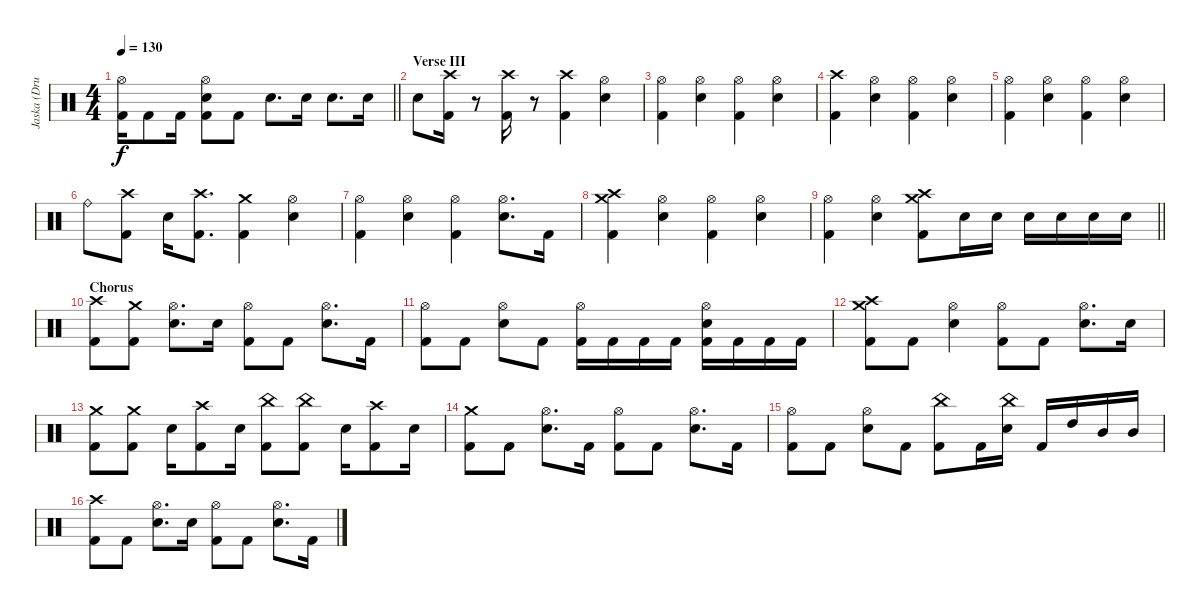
\track ("Jaska (Drums)" "Jaska (Dru") {instrument percussion}
\staff {score}
\articulation defaults
\ts (4 4)
\tempo 130
\clef neutral
\barLineRight lightlight
\ks c
("Hi-Hat (open)" "Kick (hit) 2").16{dy f} "Kick (hit) 2".8 "Kick (hit) 2".16 ("Hi-Hat (open)" "Electric Snare (hit)" "Kick (hit) 2").8 "Kick (hit) 2".8 "Electric Snare (hit)".8{d} "Electric Snare (hit)".16 "Electric Snare (hit)".8{d} "Electric Snare (hit)".16 |
\section ("" "Verse III")
"Electric Snare (hit)".8 ("Crash high (hit)" "Kick (hit) 2").16 r.8{volume 0} ("Crash high (hit)" "Kick (hit) 2").16{volume 16} r.8{volume 0} ("Crash high (hit)" "Kick (hit) 2").4{volume 16} ("Hi-Hat (open)" "Electric Snare (hit)").4 |
("Hi-Hat (open)" "Kick (hit) 2").4 ("Hi-Hat (open)" "Electric Snare (hit)").4 ("Hi-Hat (open)" "Kick (hit) 2").4 ("Hi-Hat (open)" "Electric Snare (hit)").4 |
("Crash high (hit)" "Kick (hit) 2").4 ("Hi-Hat (open)" "Electric Snare (hit)").4 ("Hi-Hat (open)" "Kick (hit) 2").4 ("Hi-Hat (open)" "Electric Snare (hit)").4 |
("Hi-Hat (open)" "Kick (hit) 2").4 ("Hi-Hat (open)" "Electric Snare (hit)").4 ("Hi-Hat (open)" "Kick (hit) 2").4 ("Hi-Hat (open)" "Electric Snare (hit)").4 |
"Ride (bell)".8 ("Crash high (hit)" "Kick (hit) 2").8 "Electric Snare (hit)".16 ("Crash high (hit)" "Kick (hit) 2").8{d} ("Crash medium (hit)" "Kick (hit) 2").4 ("Hi-Hat (open)" "Electric Snare (hit)").4 |
("Hi-Hat (open)" "Kick (hit) 2").4 ("Hi-Hat (open)" "Electric Snare (hit)").4 ("Hi-Hat (open)" "Kick (hit) 2").4 ("Hi-Hat (open)" "Electric Snare (hit)").8{d} "Kick (hit) 2".16 |
("Crash medium (hit)" "Crash high (hit)" "Kick (hit) 2").4 ("Hi-Hat (open)" "Electric Snare (hit)").4 ("Hi-Hat (open)" "Kick (hit) 2").4 ("Hi-Hat (open)" "Electric Snare (hit)").4 |
\barLineRight lightlight
("Hi-Hat (open)" "Kick (hit) 2").4 ("Hi-Hat (open)" "Electric Snare (hit)").4 ("Crash medium (hit)" "Crash high (hit)" "Kick (hit) 2").8 "Electric Snare (hit)".16 "Electric Snare (hit)".16 "Electric Snare (hit)".16 "Electric Snare (hit)".16 "Electric Snare (hit)".16 "Electric Snare (hit)".16 |
\section ("" "Chorus")
("Crash high (hit)" "Kick (hit) 2").8 ("Crash medium (hit)" "Kick (hit) 2").8 ("Hi-Hat (open)" "Electric Snare (hit)").8{d} "Electric Snare (hit)".16 ("Hi-Hat (open)" "Kick (hit) 2").8 "Kick (hit) 2".8 ("Hi-Hat (open)" "Electric Snare (hit)").8{d} "Kick (hit) 2".16 |
("Hi-Hat (open)" "Kick (hit) 2").8 "Kick (hit) 2".8 ("Hi-Hat (open)" "Electric Snare (hit)").8 "Kick (hit) 2".8 ("Hi-Hat (open)" "Kick (hit) 2").16 "Kick (hit) 2".16 "Kick (hit) 2".16 "Kick (hit) 2".16 ("Hi-Hat (open)" "Electric Snare (hit)" "Kick (hit) 2").16 "Kick (hit) 2".16 "Kick (hit) 2".16 "Kick (hit) 2".16 |
("Crash medium (hit)" "Crash high (hit)" "Kick (hit) 2").8 "Kick (hit) 2".8 ("Hi-Hat (open)" "Electric Snare (hit)").4 ("Hi-Hat (open)" "Kick (hit) 2").8 "Kick (hit) 2".8 ("Hi-Hat (open)" "Electric Snare (hit)").8{d} "Electric Snare (hit)".16 |
("Crash medium (hit)" "Kick (hit) 2").8 ("Crash medium (hit)" "Kick (hit) 2").8 "Electric Snare (hit)".16 ("Crash high (hit)" "Kick (hit) 2").8 "Electric Snare (hit)".16 ("China (hit)" "Kick (hit) 2").8 ("China (hit)" "Kick (hit) 2").8 "Electric Snare (hit)".16 ("Crash high (hit)" "Kick (hit) 2").8 "Electric Snare (hit)".16 |
("Crash medium (hit)" "Kick (hit) 2").8 "Kick (hit) 2".8 ("Hi-Hat (open)" "Electric Snare (hit)").8{d} "Kick (hit) 2".16 ("Hi-Hat (open)" "Kick (hit) 2").8 "Kick (hit) 2".8 ("Hi-Hat (open)" "Electric Snare (hit)").8{d} "Kick (hit) 2".16 |
("Hi-Hat (open)" "Kick (hit) 2").8 "Kick (hit) 2".8 ("Hi-Hat (open)" "Electric Snare (hit)").8 "Kick (hit) 2".8 ("China (hit)" "Kick (hit) 2").8 "Kick (hit) 2".16 ("China (hit)" "Electric Snare (hit)").16 "Kick (hit) 2".16 "High Tom (hit)".16 "Mid Tom (hit)".16 "Mid Tom (hit)".16 |
("Crash high (hit)" "Kick (hit) 2").8 "Kick (hit) 2".8 ("Hi-Hat (open)" "Electric Snare (hit)").8{d} "Electric Snare (hit)".16 ("Hi-Hat (open)" "Kick (hit) 2").8 "Kick (hit) 2".8 ("Hi-Hat (open)" "Electric Snare (hit)").8{d} "Kick (hit) 2".16
